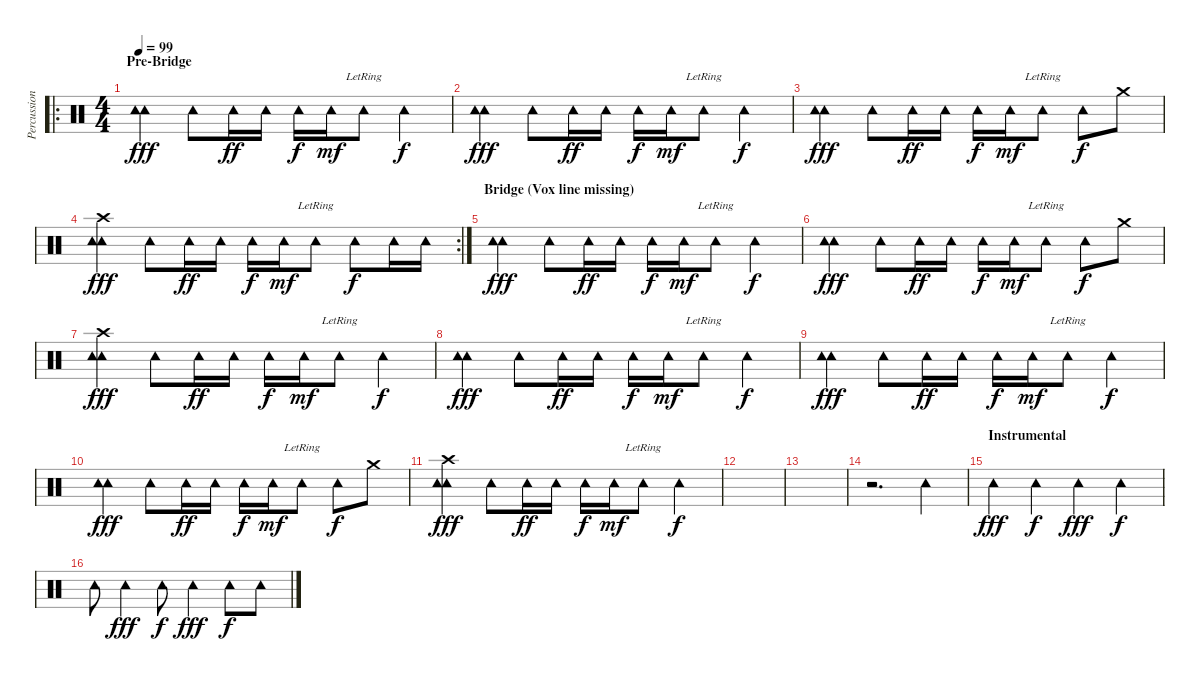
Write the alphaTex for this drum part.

\track ("Percussion" "Percussion") {instrument percussion}
\staff {score}
\articulation defaults
\ro
\ts (4 4)
\section ("" "Pre-Bridge")
\tempo 99
\clef neutral
\ks c
("Tambourine (hit)" "Tambourine (hit)").4{bd 60 dy fff} "Tambourine (hit)".8 "Tambourine (hit)".16{dy ff} "Tambourine (hit)".16 "Tambourine (hit)".16{dy f} "Tambourine (hit)".16{dy mf} "Tambourine (hit)"{lr}.8 "Tambourine (hit)".4{dy f} |
("Tambourine (hit)" "Tambourine (hit)").4{bd 60 dy fff} "Tambourine (hit)".8 "Tambourine (hit)".16{dy ff} "Tambourine (hit)".16 "Tambourine (hit)".16{dy f} "Tambourine (hit)".16{dy mf} "Tambourine (hit)"{lr}.8 "Tambourine (hit)".4{dy f} |
("Tambourine (hit)" "Tambourine (hit)").4{bd 60 dy fff} "Tambourine (hit)".8 "Tambourine (hit)".16{dy ff} "Tambourine (hit)".16 "Tambourine (hit)".16{dy f} "Tambourine (hit)".16{dy mf} "Tambourine (hit)"{lr}.8 "Tambourine (hit)".8{dy f} "Crash medium (hit)".8 |
\rc 2
("Tambourine (hit)" "Tambourine (hit)" "Crash high (hit)").4{bd 60 dy fff} "Tambourine (hit)".8 "Tambourine (hit)".16{dy ff} "Tambourine (hit)".16 "Tambourine (hit)".16{dy f} "Tambourine (hit)".16{dy mf} "Tambourine (hit)"{lr}.8 "Tambourine (hit)".8{dy f} "Tambourine (hit)".16 "Tambourine (hit)".16 |
\section ("" "Bridge (Vox line missing)")
("Tambourine (hit)" "Tambourine (hit)").4{bd 60 dy fff} "Tambourine (hit)".8 "Tambourine (hit)".16{dy ff} "Tambourine (hit)".16 "Tambourine (hit)".16{dy f} "Tambourine (hit)".16{dy mf} "Tambourine (hit)"{lr}.8 "Tambourine (hit)".4{dy f} |
("Tambourine (hit)" "Tambourine (hit)").4{bd 60 dy fff} "Tambourine (hit)".8 "Tambourine (hit)".16{dy ff} "Tambourine (hit)".16 "Tambourine (hit)".16{dy f} "Tambourine (hit)".16{dy mf} "Tambourine (hit)"{lr}.8 "Tambourine (hit)".8{dy f} "Crash medium (hit)".8 |
("Tambourine (hit)" "Tambourine (hit)" "Crash high (hit)").4{bd 60 dy fff} "Tambourine (hit)".8 "Tambourine (hit)".16{dy ff} "Tambourine (hit)".16 "Tambourine (hit)".16{dy f} "Tambourine (hit)".16{dy mf} "Tambourine (hit)"{lr}.8 "Tambourine (hit)".4{dy f} |
("Tambourine (hit)" "Tambourine (hit)").4{bd 60 dy fff} "Tambourine (hit)".8 "Tambourine (hit)".16{dy ff} "Tambourine (hit)".16 "Tambourine (hit)".16{dy f} "Tambourine (hit)".16{dy mf} "Tambourine (hit)"{lr}.8 "Tambourine (hit)".4{dy f} |
("Tambourine (hit)" "Tambourine (hit)").4{bd 60 dy fff} "Tambourine (hit)".8 "Tambourine (hit)".16{dy ff} "Tambourine (hit)".16 "Tambourine (hit)".16{dy f} "Tambourine (hit)".16{dy mf} "Tambourine (hit)"{lr}.8 "Tambourine (hit)".4{dy f} |
("Tambourine (hit)" "Tambourine (hit)").4{bd 60 dy fff} "Tambourine (hit)".8 "Tambourine (hit)".16{dy ff} "Tambourine (hit)".16 "Tambourine (hit)".16{dy f} "Tambourine (hit)".16{dy mf} "Tambourine (hit)"{lr}.8 "Tambourine (hit)".8{dy f} "Crash medium (hit)".8 |
("Tambourine (hit)" "Tambourine (hit)" "Crash high (hit)").4{bd 60 dy fff} "Tambourine (hit)".8 "Tambourine (hit)".16{dy ff} "Tambourine (hit)".16 "Tambourine (hit)".16{dy f} "Tambourine (hit)".16{dy mf} "Tambourine (hit)"{lr}.8 "Tambourine (hit)".4{dy f} |
|
|
r.2{d} "Tambourine (hit)".4 |
\section ("" "Instrumental")
"Tambourine (hit)".4{dy fff} "Tambourine (hit)".4{dy f} "Tambourine (hit)".4{dy fff} "Tambourine (hit)".4{dy f} |
"Tambourine (hit)".8{volume 4} "Tambourine (hit)".4{dy fff} "Tambourine (hit)".8{dy f} "Tambourine (hit)".4{dy fff} "Tambourine (hit)".8{dy f} "Tambourine (hit)".8
